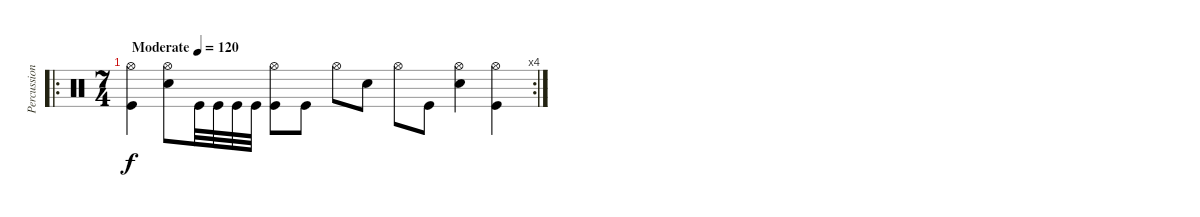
\track ("Percussion" "Percussion") {instrument percussion}
\staff {score}
\articulation defaults
\ro
\rc 4
\ts (7 4)
\tempo (120 "Moderate")
\clef neutral
\ks c
("Hi-Hat (open)" "Kick (hit)").4{dy f} ("Hi-Hat (open)" "Snare (hit) 2").8 "Kick (hit)".32 "Kick (hit)".32 "Kick (hit)".32 "Kick (hit)".32 ("Hi-Hat (open)" "Kick (hit)").8 "Kick (hit)".8 "Hi-Hat (open)".8 "Snare (hit) 2".8 "Hi-Hat (open)".8 "Kick (hit)".8 ("Hi-Hat (open)" "Snare (hit) 2").4 ("Hi-Hat (open)" "Kick (hit)").4
